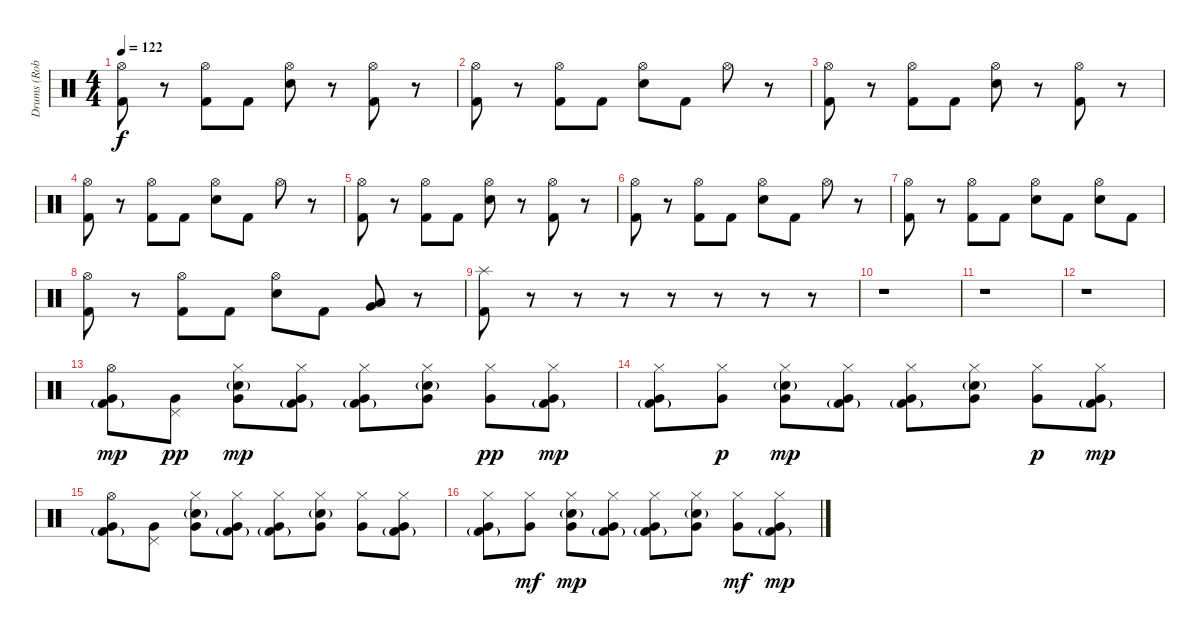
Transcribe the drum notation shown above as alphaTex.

\track ("Drums (Rob Boudron)" "Drums (Rob") {instrument percussion}
\staff {score}
\articulation defaults
\ts (4 4)
\tempo 122
\clef neutral
\ks c
("Hi-Hat (open)" "Kick (hit) 2").8{dy f} r.8 ("Hi-Hat (open)" "Kick (hit) 2").8 "Kick (hit) 2".8 ("Hi-Hat (open)" "Electric Snare (hit)").8 r.8 ("Hi-Hat (open)" "Kick (hit) 2").8 r.8 |
("Hi-Hat (open)" "Kick (hit) 2").8 r.8 ("Hi-Hat (open)" "Kick (hit) 2").8 "Kick (hit) 2".8 ("Hi-Hat (open)" "Electric Snare (hit)").8 "Kick (hit) 2".8 "Hi-Hat (open)".8 r.8 |
("Hi-Hat (open)" "Kick (hit) 2").8 r.8 ("Hi-Hat (open)" "Kick (hit) 2").8 "Kick (hit) 2".8 ("Hi-Hat (open)" "Electric Snare (hit)").8 r.8 ("Hi-Hat (open)" "Kick (hit) 2").8 r.8 |
("Hi-Hat (open)" "Kick (hit) 2").8 r.8 ("Hi-Hat (open)" "Kick (hit) 2").8 "Kick (hit) 2".8 ("Hi-Hat (open)" "Electric Snare (hit)").8 "Kick (hit) 2".8 "Hi-Hat (open)".8 r.8 |
("Hi-Hat (open)" "Kick (hit) 2").8 r.8 ("Hi-Hat (open)" "Kick (hit) 2").8 "Kick (hit) 2".8 ("Hi-Hat (open)" "Electric Snare (hit)").8 r.8 ("Hi-Hat (open)" "Kick (hit) 2").8 r.8 |
("Hi-Hat (open)" "Kick (hit) 2").8 r.8 ("Hi-Hat (open)" "Kick (hit) 2").8 "Kick (hit) 2".8 ("Hi-Hat (open)" "Electric Snare (hit)").8 "Kick (hit) 2".8 "Hi-Hat (open)".8 r.8 |
("Hi-Hat (open)" "Kick (hit) 2").8 r.8 ("Hi-Hat (open)" "Kick (hit) 2").8 "Kick (hit) 2".8 ("Hi-Hat (open)" "Electric Snare (hit)").8 "Kick (hit) 2".8 ("Hi-Hat (open)" "Electric Snare (hit)").8 "Kick (hit) 2".8 |
("Hi-Hat (open)" "Kick (hit) 2").8 r.8 ("Hi-Hat (open)" "Kick (hit) 2").8 "Kick (hit) 2".8 ("Hi-Hat (open)" "Electric Snare (hit)").8 "Kick (hit) 2".8 ("Very Low Tom (hit)" "Low Tom (hit)").8 r.8 |
("Splash (hit)" "Kick (hit) 2").8 r.8 r.8 r.8 r.8 r.8 r.8 r.8 |
r.1 |
r.1 |
r.1 |
("Hi-Hat (open)" "Very Low Tom (hit)" "Kick (hit) 2"{g}).8{dy mp} ("Pedal Hi-Hat (hit)" "Very Low Tom (hit)").8{dy pp} ("Hi-Hat (closed)" "Very Low Tom (hit)" "Electric Snare (hit)"{g}).8{dy mp} ("Hi-Hat (closed)" "Very Low Tom (hit)" "Kick (hit) 2"{g}).8 ("Hi-Hat (closed)" "Very Low Tom (hit)" "Kick (hit) 2"{g}).8 ("Hi-Hat (closed)" "Very Low Tom (hit)" "Electric Snare (hit)"{g}).8 ("Hi-Hat (closed)" "Very Low Tom (hit)").8{dy pp} ("Hi-Hat (closed)" "Very Low Tom (hit)" "Kick (hit) 2"{g}).8{dy mp} |
("Hi-Hat (closed)" "Very Low Tom (hit)" "Kick (hit) 2"{g}).8 ("Hi-Hat (closed)" "Very Low Tom (hit)").8{dy p} ("Hi-Hat (closed)" "Very Low Tom (hit)" "Electric Snare (hit)"{g}).8{dy mp} ("Hi-Hat (closed)" "Very Low Tom (hit)" "Kick (hit) 2"{g}).8 ("Hi-Hat (closed)" "Very Low Tom (hit)" "Kick (hit) 2"{g}).8 ("Hi-Hat (closed)" "Very Low Tom (hit)" "Electric Snare (hit)"{g}).8 ("Hi-Hat (closed)" "Very Low Tom (hit)").8{dy p} ("Hi-Hat (closed)" "Very Low Tom (hit)" "Kick (hit) 2"{g}).8{dy mp} |
("Hi-Hat (open)" "Very Low Tom (hit)" "Kick (hit) 2"{g}).8 ("Pedal Hi-Hat (hit)" "Very Low Tom (hit)").8 ("Hi-Hat (closed)" "Very Low Tom (hit)" "Electric Snare (hit)"{g}).8 ("Hi-Hat (closed)" "Very Low Tom (hit)" "Kick (hit) 2"{g}).8 ("Hi-Hat (closed)" "Very Low Tom (hit)" "Kick (hit) 2"{g}).8 ("Hi-Hat (closed)" "Very Low Tom (hit)" "Electric Snare (hit)"{g}).8 ("Hi-Hat (closed)" "Very Low Tom (hit)").8 ("Hi-Hat (closed)" "Very Low Tom (hit)" "Kick (hit) 2"{g}).8 |
("Hi-Hat (closed)" "Very Low Tom (hit)" "Kick (hit) 2"{g}).8 ("Hi-Hat (closed)" "Very Low Tom (hit)").8{dy mf} ("Hi-Hat (closed)" "Very Low Tom (hit)" "Electric Snare (hit)"{g}).8{dy mp} ("Hi-Hat (closed)" "Very Low Tom (hit)" "Kick (hit) 2"{g}).8 ("Hi-Hat (closed)" "Very Low Tom (hit)" "Kick (hit) 2"{g}).8 ("Hi-Hat (closed)" "Very Low Tom (hit)" "Electric Snare (hit)"{g}).8 ("Hi-Hat (closed)" "Very Low Tom (hit)").8{dy mf} ("Hi-Hat (closed)" "Very Low Tom (hit)" "Kick (hit) 2"{g}).8{dy mp}
